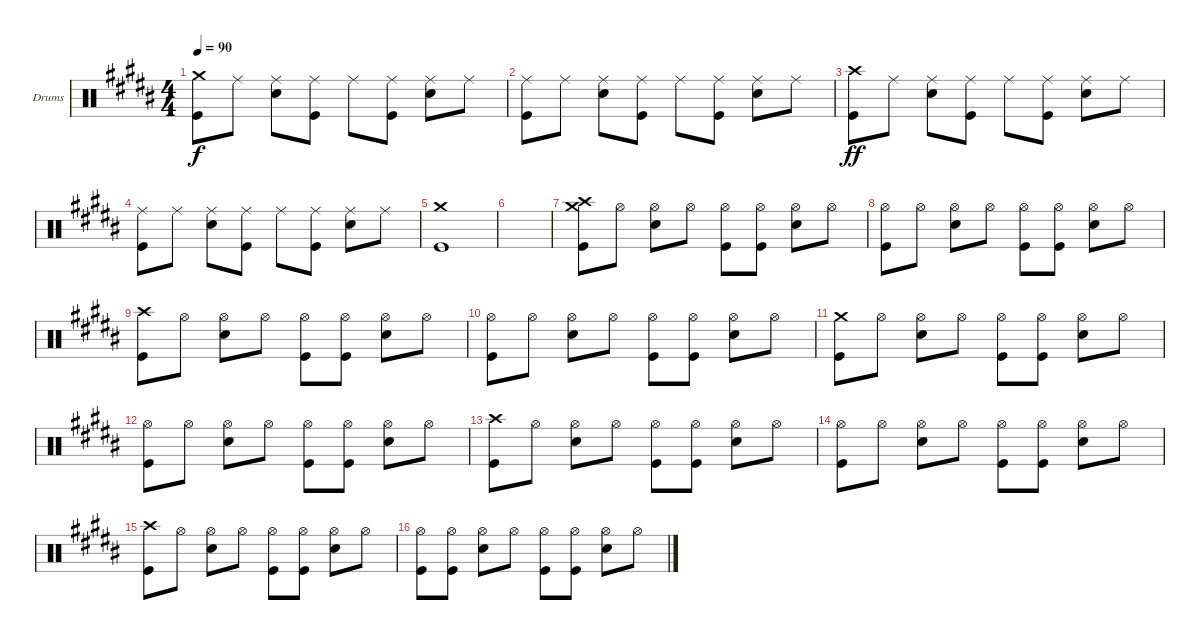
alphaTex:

\defaultSystemsLayout 4
\bracketExtendMode groupsimilarinstruments
\firstSystemTrackNameOrientation horizontal
\otherSystemsTrackNameOrientation horizontal
\track ("Drumkit" "Drums") {instrument percussion}
\staff {score}
\articulation defaults
\ts (4 4)
\tempo 90
\clef neutral
\ks b
("Kick (hit)" "Crash medium (hit)").8{dy f} "Ride (middle)".8 ("Ride (middle)" "Snare (hit) 2").8 ("Ride (middle)" "Kick (hit)").8 "Ride (middle)".8 ("Ride (middle)" "Kick (hit)").8 ("Ride (middle)" "Snare (hit) 2").8 "Ride (middle)".8 |
("Kick (hit)" "Ride (middle)").8 "Ride (middle)".8 ("Ride (middle)" "Snare (hit) 2").8 ("Ride (middle)" "Kick (hit)").8 "Ride (middle)".8 ("Ride (middle)" "Kick (hit)").8 ("Ride (middle)" "Snare (hit) 2").8 "Ride (middle)".8 |
("Kick (hit)" "Crash high (hit)").8{dy ff} "Ride (middle)".8 ("Ride (middle)" "Snare (hit) 2").8 ("Ride (middle)" "Kick (hit)").8 "Ride (middle)".8 ("Ride (middle)" "Kick (hit)").8 ("Ride (middle)" "Snare (hit) 2").8 "Ride (middle)".8 |
("Kick (hit)" "Ride (middle)").8 "Ride (middle)".8 ("Ride (middle)" "Snare (hit) 2").8 ("Ride (middle)" "Kick (hit)").8 "Ride (middle)".8 ("Ride (middle)" "Kick (hit)").8 ("Ride (middle)" "Snare (hit) 2").8 "Ride (middle)".8 |
("Crash medium (hit)" "Kick (hit)").1 |
|
("Crash high (hit)" "Crash medium (hit)" "Kick (hit)").8 "Hi-Hat (open)".8 ("Hi-Hat (open)" "Snare (hit) 2").8 "Hi-Hat (open)".8 ("Hi-Hat (open)" "Kick (hit)").8 ("Hi-Hat (open)" "Kick (hit)").8 ("Hi-Hat (open)" "Snare (hit) 2").8 "Hi-Hat (open)".8 |
("Kick (hit)" "Hi-Hat (open)").8 "Hi-Hat (open)".8 ("Hi-Hat (open)" "Snare (hit) 2").8 "Hi-Hat (open)".8 ("Hi-Hat (open)" "Kick (hit)").8 ("Hi-Hat (open)" "Kick (hit)").8 ("Hi-Hat (open)" "Snare (hit) 2").8 "Hi-Hat (open)".8 |
("Crash high (hit)" "Kick (hit)").8 "Hi-Hat (open)".8 ("Hi-Hat (open)" "Snare (hit) 2").8 "Hi-Hat (open)".8 ("Hi-Hat (open)" "Kick (hit)").8 ("Hi-Hat (open)" "Kick (hit)").8 ("Hi-Hat (open)" "Snare (hit) 2").8 "Hi-Hat (open)".8 |
("Kick (hit)" "Hi-Hat (open)").8 "Hi-Hat (open)".8 ("Hi-Hat (open)" "Snare (hit) 2").8 "Hi-Hat (open)".8 ("Hi-Hat (open)" "Kick (hit)").8 ("Hi-Hat (open)" "Kick (hit)").8 ("Hi-Hat (open)" "Snare (hit) 2").8 "Hi-Hat (open)".8 |
("Crash medium (hit)" "Kick (hit)").8 "Hi-Hat (open)".8 ("Hi-Hat (open)" "Snare (hit) 2").8 "Hi-Hat (open)".8 ("Hi-Hat (open)" "Kick (hit)").8 ("Hi-Hat (open)" "Kick (hit)").8 ("Hi-Hat (open)" "Snare (hit) 2").8 "Hi-Hat (open)".8 |
("Kick (hit)" "Hi-Hat (open)").8 "Hi-Hat (open)".8 ("Hi-Hat (open)" "Snare (hit) 2").8 "Hi-Hat (open)".8 ("Hi-Hat (open)" "Kick (hit)").8 ("Hi-Hat (open)" "Kick (hit)").8 ("Hi-Hat (open)" "Snare (hit) 2").8 "Hi-Hat (open)".8 |
("Crash high (hit)" "Kick (hit)").8 "Hi-Hat (open)".8 ("Hi-Hat (open)" "Snare (hit) 2").8 "Hi-Hat (open)".8 ("Hi-Hat (open)" "Kick (hit)").8 ("Hi-Hat (open)" "Kick (hit)").8 ("Hi-Hat (open)" "Snare (hit) 2").8 "Hi-Hat (open)".8 |
("Kick (hit)" "Hi-Hat (open)").8 "Hi-Hat (open)".8 ("Hi-Hat (open)" "Snare (hit) 2").8 "Hi-Hat (open)".8 ("Hi-Hat (open)" "Kick (hit)").8 ("Hi-Hat (open)" "Kick (hit)").8 ("Hi-Hat (open)" "Snare (hit) 2").8 "Hi-Hat (open)".8 |
("Crash high (hit)" "Kick (hit)").8 "Hi-Hat (open)".8 ("Hi-Hat (open)" "Snare (hit) 2").8 "Hi-Hat (open)".8 ("Hi-Hat (open)" "Kick (hit)").8 ("Hi-Hat (open)" "Kick (hit)").8 ("Hi-Hat (open)" "Snare (hit) 2").8 "Hi-Hat (open)".8 |
("Kick (hit)" "Hi-Hat (open)").8 ("Hi-Hat (open)" "Kick (hit)").8 ("Hi-Hat (open)" "Snare (hit) 2").8 "Hi-Hat (open)".8 ("Hi-Hat (open)" "Kick (hit)").8 ("Hi-Hat (open)" "Kick (hit)").8 ("Hi-Hat (open)" "Snare (hit) 2").8 "Hi-Hat (open)".8
